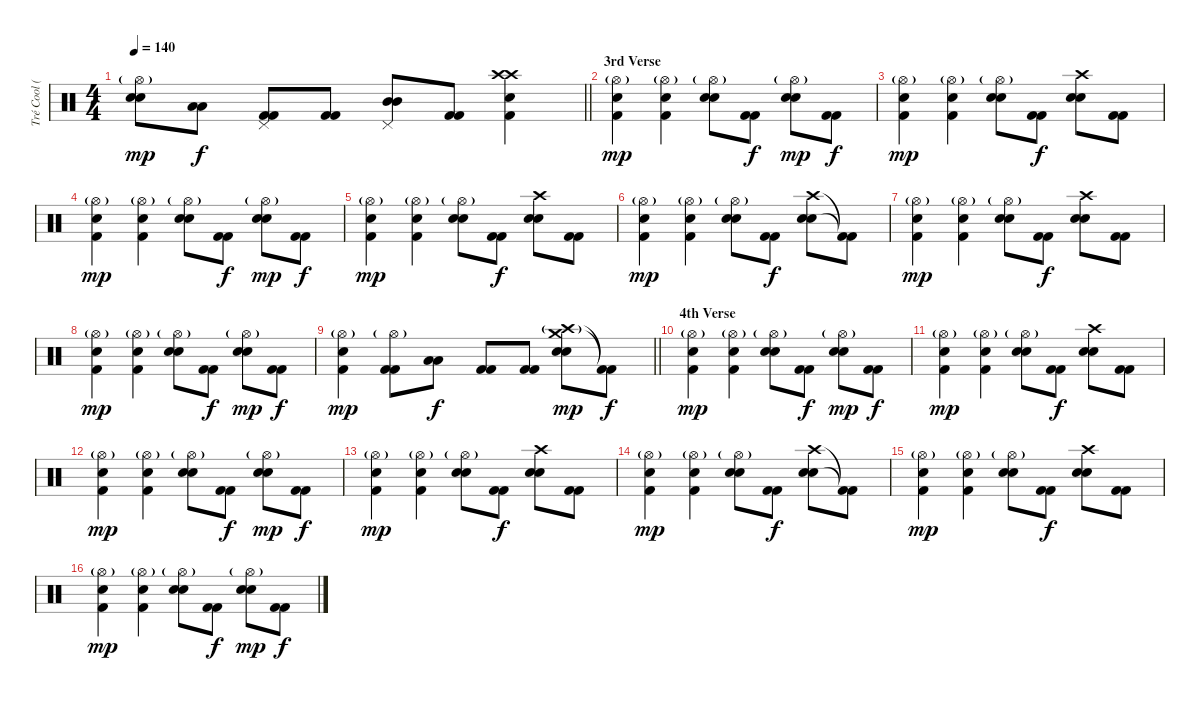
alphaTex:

\track ("Tré Cool (Drums)" "Tré Cool (") {instrument percussion}
\staff {score}
\articulation defaults
\ts (4 4)
\tempo 140
\clef neutral
\barLineRight lightlight
\ks c
("Hi-Hat (open)"{g} "Electric Snare (hit)" "Electric Snare (hit)").8{dy mp} ("Low Tom (hit)" "Low Tom (hit)").8{dy f} ("Pedal Hi-Hat (hit)" "Kick (hit) 2" "Kick (hit) 2").8 ("Kick (hit) 2" "Kick (hit) 2").8 ("Pedal Hi-Hat (hit)" "Mid Tom (hit)" "Mid Tom (hit)").8 ("Kick (hit) 2" "Kick (hit) 2").8 ("Crash high (hit)" "Crash high (hit)" "Electric Snare (hit)" "Kick (hit) 2").4 |
\section ("" "3rd Verse")
("Hi-Hat (open)"{g} "Electric Snare (hit)" "Kick (hit) 2").4{dy mp} ("Hi-Hat (open)"{g} "Electric Snare (hit)" "Kick (hit) 2").4 ("Hi-Hat (open)"{g} "Electric Snare (hit)" "Electric Snare (hit)").8 ("Kick (hit) 2" "Kick (hit) 2").8{dy f} ("Hi-Hat (open)"{g} "Electric Snare (hit)" "Electric Snare (hit)").8{dy mp} ("Kick (hit) 2" "Kick (hit) 2").8{dy f} |
("Hi-Hat (open)"{g} "Electric Snare (hit)" "Kick (hit) 2").4{dy mp} ("Hi-Hat (open)"{g} "Electric Snare (hit)" "Kick (hit) 2").4 ("Hi-Hat (open)"{g} "Electric Snare (hit)" "Electric Snare (hit)").8 ("Kick (hit) 2" "Kick (hit) 2").8{dy f} ("Crash high (hit)" "Electric Snare (hit)" "Electric Snare (hit)").8 ("Kick (hit) 2" "Kick (hit) 2").8 |
("Hi-Hat (open)"{g} "Electric Snare (hit)" "Kick (hit) 2").4{dy mp} ("Hi-Hat (open)"{g} "Electric Snare (hit)" "Kick (hit) 2").4 ("Hi-Hat (open)"{g} "Electric Snare (hit)" "Electric Snare (hit)").8 ("Kick (hit) 2" "Kick (hit) 2").8{dy f} ("Hi-Hat (open)"{g} "Electric Snare (hit)" "Electric Snare (hit)").8{dy mp} ("Kick (hit) 2" "Kick (hit) 2").8{dy f} |
("Hi-Hat (open)"{g} "Electric Snare (hit)" "Kick (hit) 2").4{dy mp} ("Hi-Hat (open)"{g} "Electric Snare (hit)" "Kick (hit) 2").4 ("Hi-Hat (open)"{g} "Electric Snare (hit)" "Electric Snare (hit)").8 ("Kick (hit) 2" "Kick (hit) 2").8{dy f} ("Crash high (hit)" "Electric Snare (hit)" "Electric Snare (hit)").8 ("Kick (hit) 2" "Kick (hit) 2").8 |
("Hi-Hat (open)"{g} "Electric Snare (hit)" "Kick (hit) 2").4{dy mp} ("Hi-Hat (open)"{g} "Electric Snare (hit)" "Kick (hit) 2").4 ("Hi-Hat (open)"{g} "Electric Snare (hit)" "Electric Snare (hit)").8 ("Kick (hit) 2" "Kick (hit) 2").8{dy f} ("Crash high (hit)" "Electric Snare (hit)" "Electric Snare (hit)").8 ("Kick (hit) 2"{t} "Kick (hit) 2"{t}).8 |
("Hi-Hat (open)"{g} "Electric Snare (hit)" "Kick (hit) 2").4{dy mp} ("Hi-Hat (open)"{g} "Electric Snare (hit)" "Kick (hit) 2").4 ("Hi-Hat (open)"{g} "Electric Snare (hit)" "Electric Snare (hit)").8 ("Kick (hit) 2" "Kick (hit) 2").8{dy f} ("Crash high (hit)" "Electric Snare (hit)" "Electric Snare (hit)").8 ("Kick (hit) 2" "Kick (hit) 2").8 |
("Hi-Hat (open)"{g} "Electric Snare (hit)" "Kick (hit) 2").4{dy mp} ("Hi-Hat (open)"{g} "Electric Snare (hit)" "Kick (hit) 2").4 ("Hi-Hat (open)"{g} "Electric Snare (hit)" "Electric Snare (hit)").8 ("Kick (hit) 2" "Kick (hit) 2").8{dy f} ("Hi-Hat (open)"{g} "Electric Snare (hit)" "Electric Snare (hit)").8{dy mp} ("Kick (hit) 2" "Kick (hit) 2").8{dy f} |
\barLineRight lightlight
("Hi-Hat (open)"{g} "Electric Snare (hit)" "Kick (hit) 2").4{dy mp} ("Hi-Hat (open)"{g} "Kick (hit) 2" "Kick (hit) 2").8 ("Low Tom (hit)" "Low Tom (hit)").8{dy f} ("Kick (hit) 2" "Kick (hit) 2").8 ("Kick (hit) 2" "Kick (hit) 2").8 ("Crash high (hit)"{g} "Crash medium (hit)" "Electric Snare (hit)" "Electric Snare (hit)").8{dy mp} ("Kick (hit) 2"{t} "Kick (hit) 2"{t}).8{dy f} |
\section ("" "4th Verse")
("Hi-Hat (open)"{g} "Electric Snare (hit)" "Kick (hit) 2").4{dy mp} ("Hi-Hat (open)"{g} "Electric Snare (hit)" "Kick (hit) 2").4 ("Hi-Hat (open)"{g} "Electric Snare (hit)" "Electric Snare (hit)").8 ("Kick (hit) 2" "Kick (hit) 2").8{dy f} ("Hi-Hat (open)"{g} "Electric Snare (hit)" "Electric Snare (hit)").8{dy mp} ("Kick (hit) 2" "Kick (hit) 2").8{dy f} |
("Hi-Hat (open)"{g} "Electric Snare (hit)" "Kick (hit) 2").4{dy mp} ("Hi-Hat (open)"{g} "Electric Snare (hit)" "Kick (hit) 2").4 ("Hi-Hat (open)"{g} "Electric Snare (hit)" "Electric Snare (hit)").8 ("Kick (hit) 2" "Kick (hit) 2").8{dy f} ("Crash high (hit)" "Electric Snare (hit)" "Electric Snare (hit)").8 ("Kick (hit) 2" "Kick (hit) 2").8 |
("Hi-Hat (open)"{g} "Electric Snare (hit)" "Kick (hit) 2").4{dy mp} ("Hi-Hat (open)"{g} "Electric Snare (hit)" "Kick (hit) 2").4 ("Hi-Hat (open)"{g} "Electric Snare (hit)" "Electric Snare (hit)").8 ("Kick (hit) 2" "Kick (hit) 2").8{dy f} ("Hi-Hat (open)"{g} "Electric Snare (hit)" "Electric Snare (hit)").8{dy mp} ("Kick (hit) 2" "Kick (hit) 2").8{dy f} |
("Hi-Hat (open)"{g} "Electric Snare (hit)" "Kick (hit) 2").4{dy mp} ("Hi-Hat (open)"{g} "Electric Snare (hit)" "Kick (hit) 2").4 ("Hi-Hat (open)"{g} "Electric Snare (hit)" "Electric Snare (hit)").8 ("Kick (hit) 2" "Kick (hit) 2").8{dy f} ("Crash high (hit)" "Electric Snare (hit)" "Electric Snare (hit)").8 ("Kick (hit) 2" "Kick (hit) 2").8 |
("Hi-Hat (open)"{g} "Electric Snare (hit)" "Kick (hit) 2").4{dy mp} ("Hi-Hat (open)"{g} "Electric Snare (hit)" "Kick (hit) 2").4 ("Hi-Hat (open)"{g} "Electric Snare (hit)" "Electric Snare (hit)").8 ("Kick (hit) 2" "Kick (hit) 2").8{dy f} ("Crash high (hit)" "Electric Snare (hit)" "Electric Snare (hit)").8 ("Kick (hit) 2"{t} "Kick (hit) 2"{t}).8 |
("Hi-Hat (open)"{g} "Electric Snare (hit)" "Kick (hit) 2").4{dy mp} ("Hi-Hat (open)"{g} "Electric Snare (hit)" "Kick (hit) 2").4 ("Hi-Hat (open)"{g} "Electric Snare (hit)" "Electric Snare (hit)").8 ("Kick (hit) 2" "Kick (hit) 2").8{dy f} ("Crash high (hit)" "Electric Snare (hit)" "Electric Snare (hit)").8 ("Kick (hit) 2" "Kick (hit) 2").8 |
("Hi-Hat (open)"{g} "Electric Snare (hit)" "Kick (hit) 2").4{dy mp} ("Hi-Hat (open)"{g} "Electric Snare (hit)" "Kick (hit) 2").4 ("Hi-Hat (open)"{g} "Electric Snare (hit)" "Electric Snare (hit)").8 ("Kick (hit) 2" "Kick (hit) 2").8{dy f} ("Hi-Hat (open)"{g} "Electric Snare (hit)" "Electric Snare (hit)").8{dy mp} ("Kick (hit) 2" "Kick (hit) 2").8{dy f}
